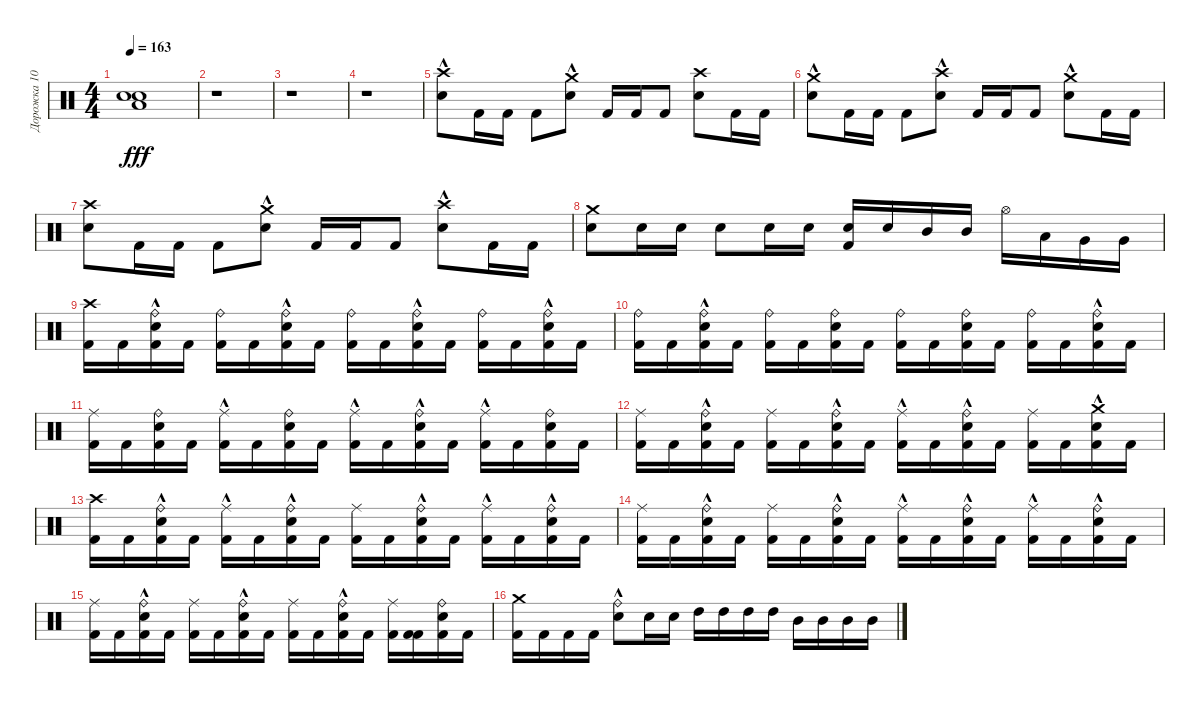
\track ("Дорожка 10" "Дорожка 10") {instrument percussion}
\staff {score}
\articulation defaults
\ts (4 4)
\tempo 163
\clef neutral
\ks c
("Electric Snare (hit)" "Electric Snare (hit)" "Low Floor Tom (hit)").1{dy fff} |
r.1 |
r.1 |
r.1 |
("Electric Snare (hit)"{hac} "Crash high (hit)").8 "Kick (hit) 2".16 "Kick (hit) 2".16 "Kick (hit) 2".8 ("Electric Snare (hit)" "Crash medium (hit)"{hac}).8 "Kick (hit) 2".16 "Kick (hit) 2".16 "Kick (hit) 2".8 ("Crash high (hit)" "Electric Snare (hit)").8 "Kick (hit) 2".16 "Kick (hit) 2".16 |
("Electric Snare (hit)" "Crash medium (hit)"{hac}).8 "Kick (hit) 2".16 "Kick (hit) 2".16 "Kick (hit) 2".8 ("Electric Snare (hit)" "Crash high (hit)"{hac}).8 "Kick (hit) 2".16 "Kick (hit) 2".16 "Kick (hit) 2".8 ("Electric Snare (hit)"{hac} "Crash medium (hit)").8 "Kick (hit) 2".16 "Kick (hit) 2".16 |
("Crash high (hit)" "Electric Snare (hit)").8 "Kick (hit) 2".16 "Kick (hit) 2".16 "Kick (hit) 2".8 ("Electric Snare (hit)" "Crash medium (hit)"{hac}).8 "Kick (hit) 2".16 "Kick (hit) 2".16 "Kick (hit) 2".8 ("Electric Snare (hit)"{hac} "Crash high (hit)"{hac}).8 "Kick (hit) 2".16 "Kick (hit) 2".16 |
("Electric Snare (hit)" "Crash medium (hit)").8 "Electric Snare (hit)".16 "Electric Snare (hit)".16 "Electric Snare (hit)".8 "Electric Snare (hit)".16 "Electric Snare (hit)".16 ("Electric Snare (hit)" "Kick (hit) 2").16 "Electric Snare (hit)".16 "Mid Tom (hit)".16 "Mid Tom (hit)".16 "Hi-Hat (open)".16 "Low Tom (hit)".16 "Very Low Tom (hit)".16 "Very Low Tom (hit)".16 |
("Kick (hit) 2" "Crash high (hit)").16 "Kick (hit) 2".16 ("Kick (hit) 2" "Electric Snare (hit)" "Ride (bell)"{hac}).16 "Kick (hit) 2".16 ("Kick (hit) 2" "Ride (bell)").16 "Kick (hit) 2".16 ("Kick (hit) 2" "Electric Snare (hit)"{hac} "Ride (bell)").16 "Kick (hit) 2".16 ("Kick (hit) 2" "Ride (bell)").16 "Kick (hit) 2".16 ("Kick (hit) 2" "Electric Snare (hit)"{hac} "Ride (bell)").16 "Kick (hit) 2".16 ("Kick (hit) 2" "Ride (bell)").16 "Kick (hit) 2".16 ("Kick (hit) 2" "Electric Snare (hit)"{hac} "Ride (bell)").16 "Kick (hit) 2".16 |
("Kick (hit) 2" "Ride (bell)").16 "Kick (hit) 2".16 ("Kick (hit) 2" "Electric Snare (hit)"{hac} "Ride (bell)").16 "Kick (hit) 2".16 ("Kick (hit) 2" "Ride (bell)").16 "Kick (hit) 2".16 ("Kick (hit) 2" "Electric Snare (hit)" "Ride (bell)").16 "Kick (hit) 2".16 ("Kick (hit) 2" "Ride (bell)").16 "Kick (hit) 2".16 ("Kick (hit) 2" "Electric Snare (hit)" "Ride (bell)").16 "Kick (hit) 2".16 ("Kick (hit) 2" "Ride (bell)").16 "Kick (hit) 2".16 ("Kick (hit) 2" "Electric Snare (hit)"{hac} "Ride (bell)").16 "Kick (hit) 2".16 |
("Kick (hit) 2" "Ride (middle)").16 "Kick (hit) 2".16 ("Kick (hit) 2" "Electric Snare (hit)" "Ride (bell)").16 "Kick (hit) 2".16 ("Kick (hit) 2" "Ride (middle)"{hac}).16 "Kick (hit) 2".16 ("Kick (hit) 2" "Electric Snare (hit)" "Ride (bell)").16 "Kick (hit) 2".16 ("Kick (hit) 2" "Ride (middle)"{hac}).16 "Kick (hit) 2".16 ("Kick (hit) 2" "Electric Snare (hit)"{hac} "Ride (bell)").16 "Kick (hit) 2".16 ("Kick (hit) 2" "Ride (middle)"{hac}).16 "Kick (hit) 2".16 ("Kick (hit) 2" "Electric Snare (hit)" "Ride (bell)").16 "Kick (hit) 2".16 |
("Kick (hit) 2" "Ride (middle)").16 "Kick (hit) 2".16 ("Kick (hit) 2" "Electric Snare (hit)"{hac} "Ride (bell)"{hac}).16 "Kick (hit) 2".16 ("Kick (hit) 2" "Ride (middle)").16 "Kick (hit) 2".16 ("Kick (hit) 2" "Electric Snare (hit)"{hac} "Ride (bell)"{hac}).16 "Kick (hit) 2".16 ("Kick (hit) 2" "Ride (middle)"{hac}).16 "Kick (hit) 2".16 ("Kick (hit) 2" "Electric Snare (hit)"{hac} "Ride (bell)"{hac}).16 "Kick (hit) 2".16 ("Kick (hit) 2" "Ride (middle)").16 "Kick (hit) 2".16 ("Kick (hit) 2" "Electric Snare (hit)"{hac} "Crash medium (hit)"{hac}).16 "Kick (hit) 2".16 |
("Kick (hit) 2" "Crash high (hit)").16 "Kick (hit) 2".16 ("Kick (hit) 2" "Electric Snare (hit)"{hac} "Ride (bell)").16 "Kick (hit) 2".16 ("Kick (hit) 2" "Ride (middle)"{hac}).16 "Kick (hit) 2".16 ("Kick (hit) 2" "Electric Snare (hit)"{hac} "Ride (bell)").16 "Kick (hit) 2".16 ("Kick (hit) 2" "Ride (middle)").16 "Kick (hit) 2".16 ("Kick (hit) 2" "Electric Snare (hit)"{hac} "Ride (bell)").16 "Kick (hit) 2".16 ("Kick (hit) 2" "Ride (middle)"{hac}).16 "Kick (hit) 2".16 ("Kick (hit) 2" "Electric Snare (hit)"{hac} "Ride (bell)").16 "Kick (hit) 2".16 |
("Kick (hit) 2" "Ride (middle)").16 "Kick (hit) 2".16 ("Kick (hit) 2" "Electric Snare (hit)"{hac} "Ride (bell)").16 "Kick (hit) 2".16 ("Kick (hit) 2" "Ride (middle)").16 "Kick (hit) 2".16 ("Kick (hit) 2" "Electric Snare (hit)"{hac} "Ride (bell)").16 "Kick (hit) 2".16 ("Kick (hit) 2" "Ride (middle)"{hac}).16 "Kick (hit) 2".16 ("Kick (hit) 2" "Electric Snare (hit)"{hac} "Ride (bell)").16 "Kick (hit) 2".16 ("Kick (hit) 2" "Ride (middle)"{hac}).16 "Kick (hit) 2".16 ("Kick (hit) 2" "Electric Snare (hit)"{hac} "Ride (bell)").16 "Kick (hit) 2".16 |
("Kick (hit) 2" "Ride (middle)").16 "Kick (hit) 2".16 ("Kick (hit) 2" "Electric Snare (hit)"{hac} "Ride (bell)").16 "Kick (hit) 2".16 ("Kick (hit) 2" "Ride (middle)").16 "Kick (hit) 2".16 ("Kick (hit) 2" "Electric Snare (hit)"{hac} "Ride (bell)").16 "Kick (hit) 2".16 ("Kick (hit) 2" "Ride (middle)").16 "Kick (hit) 2".16 ("Kick (hit) 2" "Electric Snare (hit)"{hac} "Ride (bell)"{hac}).16 "Kick (hit) 2".16 ("Kick (hit) 2" "Ride (middle)").16 ("Kick (hit) 2" "Kick (hit) 2").16 ("Kick (hit) 2" "Electric Snare (hit)" "Ride (bell)").16 "Kick (hit) 2".16 |
("Kick (hit) 2" "Crash medium (hit)").16 "Kick (hit) 2".16 "Kick (hit) 2".16 "Kick (hit) 2".16 ("Ride (bell)"{hac} "Electric Snare (hit)"{hac}).8 "Electric Snare (hit)".16 "Electric Snare (hit)".16 "High Tom (hit)".16 "High Tom (hit)".16 "High Tom (hit)".16 "High Tom (hit)".16 "Mid Tom (hit)".16 "Mid Tom (hit)".16 "Mid Tom (hit)".16 "Mid Tom (hit)".16
